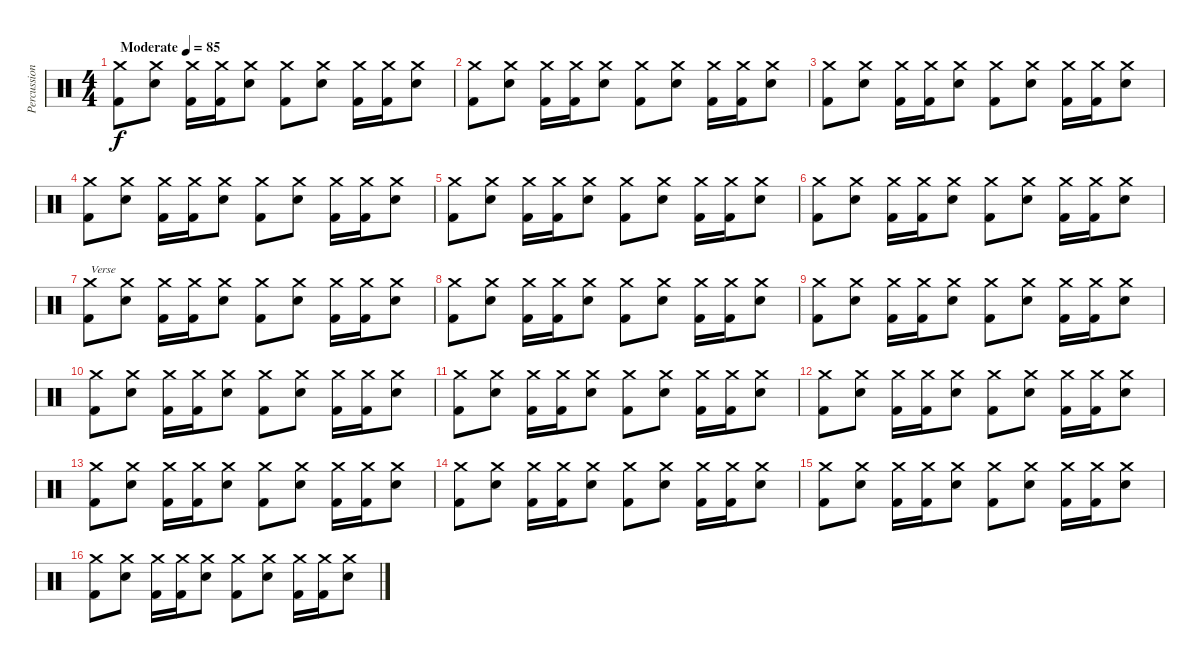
\track ("Percussion" "Percussion") {instrument percussion}
\staff {score}
\articulation defaults
\ts (4 4)
\tempo (85 "Moderate")
\clef neutral
\ks c
("Crash medium (hit)" "Kick (hit) 2").8{dy f} ("Crash medium (hit)" "Electric Snare (hit)").8 ("Crash medium (hit)" "Kick (hit) 2").16 ("Crash medium (hit)" "Kick (hit) 2").16 ("Crash medium (hit)" "Electric Snare (hit)").8 ("Crash medium (hit)" "Kick (hit) 2").8 ("Crash medium (hit)" "Electric Snare (hit)").8 ("Crash medium (hit)" "Kick (hit) 2").16 ("Crash medium (hit)" "Kick (hit) 2").16 ("Crash medium (hit)" "Electric Snare (hit)").8 |
("Crash medium (hit)" "Kick (hit) 2").8 ("Crash medium (hit)" "Electric Snare (hit)").8 ("Crash medium (hit)" "Kick (hit) 2").16 ("Crash medium (hit)" "Kick (hit) 2").16 ("Crash medium (hit)" "Electric Snare (hit)").8 ("Crash medium (hit)" "Kick (hit) 2").8 ("Crash medium (hit)" "Electric Snare (hit)").8 ("Crash medium (hit)" "Kick (hit) 2").16 ("Crash medium (hit)" "Kick (hit) 2").16 ("Crash medium (hit)" "Electric Snare (hit)").8 |
("Crash medium (hit)" "Kick (hit) 2").8 ("Crash medium (hit)" "Electric Snare (hit)").8 ("Crash medium (hit)" "Kick (hit) 2").16 ("Crash medium (hit)" "Kick (hit) 2").16 ("Crash medium (hit)" "Electric Snare (hit)").8 ("Crash medium (hit)" "Kick (hit) 2").8 ("Crash medium (hit)" "Electric Snare (hit)").8 ("Crash medium (hit)" "Kick (hit) 2").16 ("Crash medium (hit)" "Kick (hit) 2").16 ("Crash medium (hit)" "Electric Snare (hit)").8 |
("Crash medium (hit)" "Kick (hit) 2").8 ("Crash medium (hit)" "Electric Snare (hit)").8 ("Crash medium (hit)" "Kick (hit) 2").16 ("Crash medium (hit)" "Kick (hit) 2").16 ("Crash medium (hit)" "Electric Snare (hit)").8 ("Crash medium (hit)" "Kick (hit) 2").8 ("Crash medium (hit)" "Electric Snare (hit)").8 ("Crash medium (hit)" "Kick (hit) 2").16 ("Crash medium (hit)" "Kick (hit) 2").16 ("Crash medium (hit)" "Electric Snare (hit)").8 |
("Crash medium (hit)" "Kick (hit) 2").8 ("Crash medium (hit)" "Electric Snare (hit)").8 ("Crash medium (hit)" "Kick (hit) 2").16 ("Crash medium (hit)" "Kick (hit) 2").16 ("Crash medium (hit)" "Electric Snare (hit)").8 ("Crash medium (hit)" "Kick (hit) 2").8 ("Crash medium (hit)" "Electric Snare (hit)").8 ("Crash medium (hit)" "Kick (hit) 2").16 ("Crash medium (hit)" "Kick (hit) 2").16 ("Crash medium (hit)" "Electric Snare (hit)").8 |
("Crash medium (hit)" "Kick (hit) 2").8 ("Crash medium (hit)" "Electric Snare (hit)").8 ("Crash medium (hit)" "Kick (hit) 2").16 ("Crash medium (hit)" "Kick (hit) 2").16 ("Crash medium (hit)" "Electric Snare (hit)").8 ("Crash medium (hit)" "Kick (hit) 2").8 ("Crash medium (hit)" "Electric Snare (hit)").8 ("Crash medium (hit)" "Kick (hit) 2").16 ("Crash medium (hit)" "Kick (hit) 2").16 ("Crash medium (hit)" "Electric Snare (hit)").8 |
("Crash medium (hit)" "Kick (hit) 2").8{txt "Verse"} ("Crash medium (hit)" "Electric Snare (hit)").8 ("Crash medium (hit)" "Kick (hit) 2").16 ("Crash medium (hit)" "Kick (hit) 2").16 ("Crash medium (hit)" "Electric Snare (hit)").8 ("Crash medium (hit)" "Kick (hit) 2").8 ("Crash medium (hit)" "Electric Snare (hit)").8 ("Crash medium (hit)" "Kick (hit) 2").16 ("Crash medium (hit)" "Kick (hit) 2").16 ("Crash medium (hit)" "Electric Snare (hit)").8 |
("Crash medium (hit)" "Kick (hit) 2").8 ("Crash medium (hit)" "Electric Snare (hit)").8 ("Crash medium (hit)" "Kick (hit) 2").16 ("Crash medium (hit)" "Kick (hit) 2").16 ("Crash medium (hit)" "Electric Snare (hit)").8 ("Crash medium (hit)" "Kick (hit) 2").8 ("Crash medium (hit)" "Electric Snare (hit)").8 ("Crash medium (hit)" "Kick (hit) 2").16 ("Crash medium (hit)" "Kick (hit) 2").16 ("Crash medium (hit)" "Electric Snare (hit)").8 |
("Crash medium (hit)" "Kick (hit) 2").8 ("Crash medium (hit)" "Electric Snare (hit)").8 ("Crash medium (hit)" "Kick (hit) 2").16 ("Crash medium (hit)" "Kick (hit) 2").16 ("Crash medium (hit)" "Electric Snare (hit)").8 ("Crash medium (hit)" "Kick (hit) 2").8 ("Crash medium (hit)" "Electric Snare (hit)").8 ("Crash medium (hit)" "Kick (hit) 2").16 ("Crash medium (hit)" "Kick (hit) 2").16 ("Crash medium (hit)" "Electric Snare (hit)").8 |
("Crash medium (hit)" "Kick (hit) 2").8 ("Crash medium (hit)" "Electric Snare (hit)").8 ("Crash medium (hit)" "Kick (hit) 2").16 ("Crash medium (hit)" "Kick (hit) 2").16 ("Crash medium (hit)" "Electric Snare (hit)").8 ("Crash medium (hit)" "Kick (hit) 2").8 ("Crash medium (hit)" "Electric Snare (hit)").8 ("Crash medium (hit)" "Kick (hit) 2").16 ("Crash medium (hit)" "Kick (hit) 2").16 ("Crash medium (hit)" "Electric Snare (hit)").8 |
("Crash medium (hit)" "Kick (hit) 2").8 ("Crash medium (hit)" "Electric Snare (hit)").8 ("Crash medium (hit)" "Kick (hit) 2").16 ("Crash medium (hit)" "Kick (hit) 2").16 ("Crash medium (hit)" "Electric Snare (hit)").8 ("Crash medium (hit)" "Kick (hit) 2").8 ("Crash medium (hit)" "Electric Snare (hit)").8 ("Crash medium (hit)" "Kick (hit) 2").16 ("Crash medium (hit)" "Kick (hit) 2").16 ("Crash medium (hit)" "Electric Snare (hit)").8 |
("Crash medium (hit)" "Kick (hit) 2").8 ("Crash medium (hit)" "Electric Snare (hit)").8 ("Crash medium (hit)" "Kick (hit) 2").16 ("Crash medium (hit)" "Kick (hit) 2").16 ("Crash medium (hit)" "Electric Snare (hit)").8 ("Crash medium (hit)" "Kick (hit) 2").8 ("Crash medium (hit)" "Electric Snare (hit)").8 ("Crash medium (hit)" "Kick (hit) 2").16 ("Crash medium (hit)" "Kick (hit) 2").16 ("Crash medium (hit)" "Electric Snare (hit)").8 |
("Crash medium (hit)" "Kick (hit) 2").8 ("Crash medium (hit)" "Electric Snare (hit)").8 ("Crash medium (hit)" "Kick (hit) 2").16 ("Crash medium (hit)" "Kick (hit) 2").16 ("Crash medium (hit)" "Electric Snare (hit)").8 ("Crash medium (hit)" "Kick (hit) 2").8 ("Crash medium (hit)" "Electric Snare (hit)").8 ("Crash medium (hit)" "Kick (hit) 2").16 ("Crash medium (hit)" "Kick (hit) 2").16 ("Crash medium (hit)" "Electric Snare (hit)").8 |
("Crash medium (hit)" "Kick (hit) 2").8 ("Crash medium (hit)" "Electric Snare (hit)").8 ("Crash medium (hit)" "Kick (hit) 2").16 ("Crash medium (hit)" "Kick (hit) 2").16 ("Crash medium (hit)" "Electric Snare (hit)").8 ("Crash medium (hit)" "Kick (hit) 2").8 ("Crash medium (hit)" "Electric Snare (hit)").8 ("Crash medium (hit)" "Kick (hit) 2").16 ("Crash medium (hit)" "Kick (hit) 2").16 ("Crash medium (hit)" "Electric Snare (hit)").8 |
("Crash medium (hit)" "Kick (hit) 2").8 ("Crash medium (hit)" "Electric Snare (hit)").8 ("Crash medium (hit)" "Kick (hit) 2").16 ("Crash medium (hit)" "Kick (hit) 2").16 ("Crash medium (hit)" "Electric Snare (hit)").8 ("Crash medium (hit)" "Kick (hit) 2").8 ("Crash medium (hit)" "Electric Snare (hit)").8 ("Crash medium (hit)" "Kick (hit) 2").16 ("Crash medium (hit)" "Kick (hit) 2").16 ("Crash medium (hit)" "Electric Snare (hit)").8 |
("Crash medium (hit)" "Kick (hit) 2").8 ("Crash medium (hit)" "Electric Snare (hit)").8 ("Crash medium (hit)" "Kick (hit) 2").16 ("Crash medium (hit)" "Kick (hit) 2").16 ("Crash medium (hit)" "Electric Snare (hit)").8 ("Crash medium (hit)" "Kick (hit) 2").8 ("Crash medium (hit)" "Electric Snare (hit)").8 ("Crash medium (hit)" "Kick (hit) 2").16 ("Crash medium (hit)" "Kick (hit) 2").16 ("Crash medium (hit)" "Electric Snare (hit)").8
